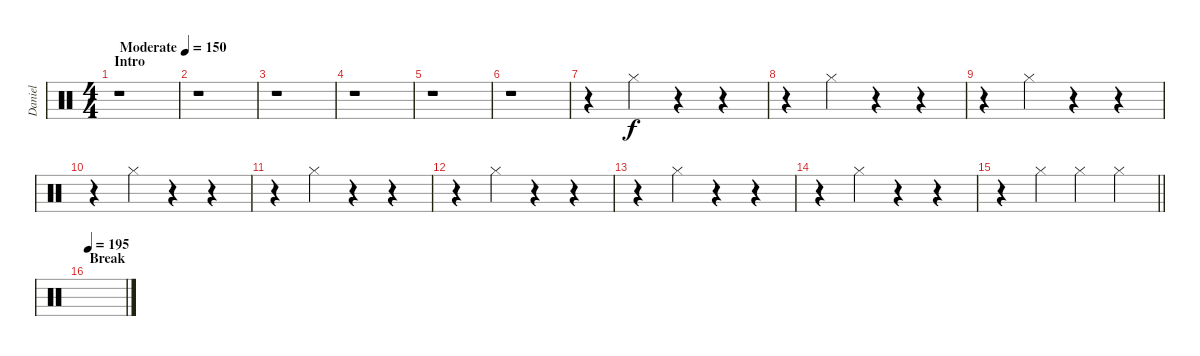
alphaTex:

\track ("Daniel" "Daniel") {instrument percussion}
\staff {score}
\articulation defaults
\ts (4 4)
\section ("" "Intro")
\tempo (150 "Moderate")
\clef neutral
\ks c
r.1{dy f} |
r.1 |
r.1 |
r.1 |
r.1 |
r.1 |
r.4 "Hi-Hat (closed)".4 r.4 r.4 |
r.4 "Hi-Hat (closed)".4 r.4 r.4 |
r.4 "Hi-Hat (closed)".4 r.4 r.4 |
r.4 "Hi-Hat (closed)".4 r.4 r.4 |
r.4 "Hi-Hat (closed)".4 r.4 r.4 |
r.4 "Hi-Hat (closed)".4 r.4 r.4 |
r.4 "Hi-Hat (closed)".4 r.4 r.4 |
r.4 "Hi-Hat (closed)".4 r.4 r.4 |
\barLineRight lightlight
r.4 "Hi-Hat (closed)".4 "Hi-Hat (closed)".4 "Hi-Hat (closed)".4 |
\section ("" "Break")
\tempo 195
